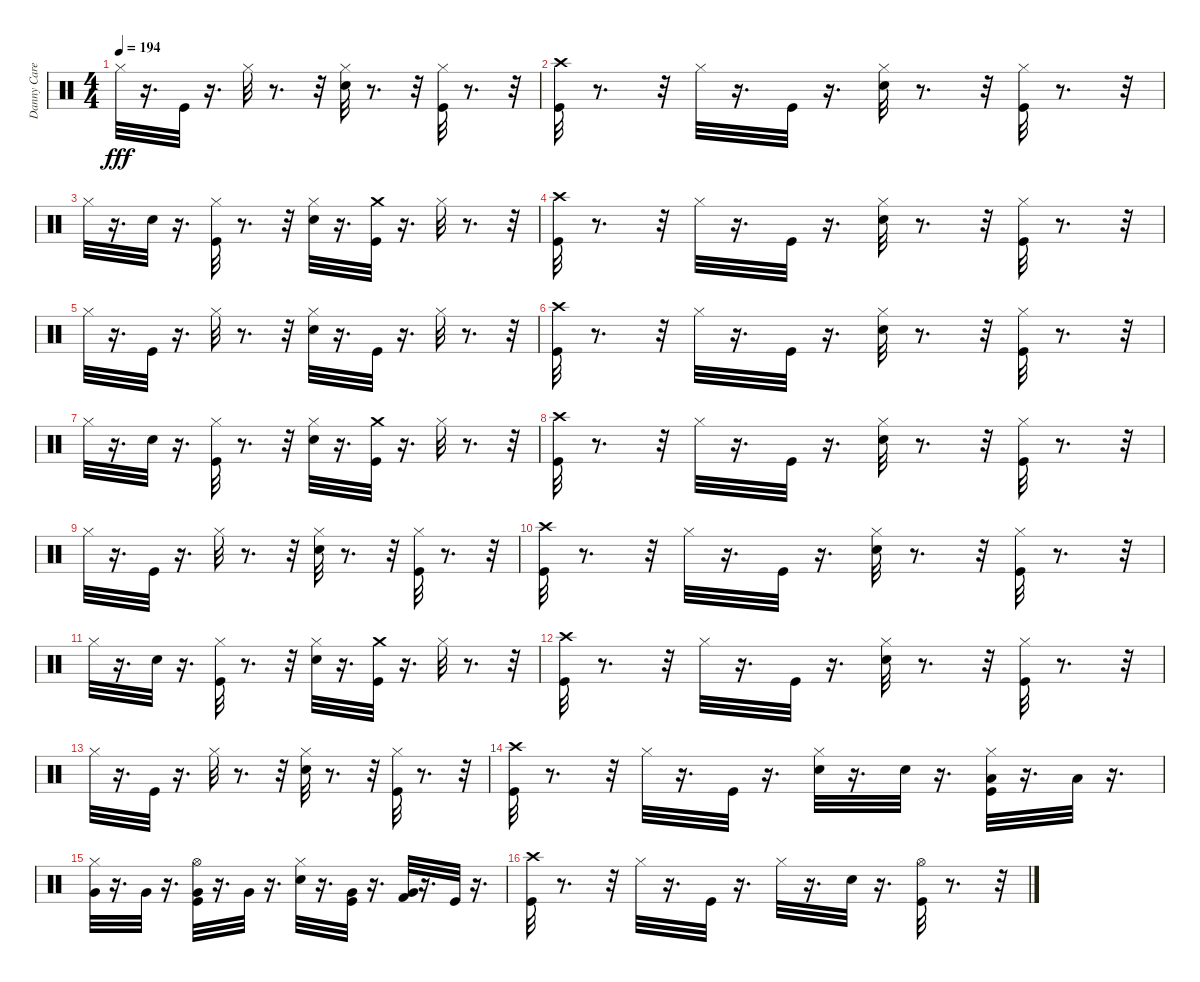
\track ("Danny Carey" "Danny Care") {instrument percussion}
\staff {score}
\articulation defaults
\ts (4 4)
\tempo 194
\clef neutral
\ks c "Hi-Hat (closed)".32{dy fff}
r.16{d} "Kick (hit)".32 r.16{d} "Hi-Hat (closed)".32 r.8{d} r.32 ("Hi-Hat (closed)" "Snare (hit) 2").32 r.8{d} r.32 ("Hi-Hat (closed)" "Kick (hit)").32 r.8{d} r.32 |
("Kick (hit)" "Crash high (hit)").32 r.8{d} r.32 "Hi-Hat (closed)".32 r.16{d} "Kick (hit)".32 r.16{d} ("Snare (hit) 2" "Hi-Hat (closed)").32 r.8{d} r.32 ("Kick (hit)" "Hi-Hat (closed)").32 r.8{d} r.32 |
"Hi-Hat (closed)".32 r.16{d} "Snare (hit) 2".32 r.16{d} ("Kick (hit)" "Hi-Hat (closed)").32 r.8{d} r.32 ("Snare (hit) 2" "Hi-Hat (closed)").32 r.16{d} ("Kick (hit)" "Crash medium (hit)").32 r.16{d} "Hi-Hat (closed)".32 r.8{d} r.32 |
("Crash high (hit)" "Kick (hit)").32 r.8{d} r.32 "Hi-Hat (closed)".32 r.16{d} "Kick (hit)".32 r.16{d} ("Hi-Hat (closed)" "Snare (hit) 2").32 r.8{d} r.32 ("Hi-Hat (closed)" "Kick (hit)").32 r.8{d} r.32 |
"Hi-Hat (closed)".32 r.16{d} "Kick (hit)".32 r.16{d} "Hi-Hat (closed)".32 r.8{d} r.32 ("Hi-Hat (closed)" "Snare (hit) 2").32 r.16{d} "Kick (hit)".32 r.16{d} "Hi-Hat (closed)".32 r.8{d} r.32 |
("Kick (hit)" "Crash high (hit)").32 r.8{d} r.32 "Hi-Hat (closed)".32 r.16{d} "Kick (hit)".32 r.16{d} ("Snare (hit) 2" "Hi-Hat (closed)").32 r.8{d} r.32 ("Kick (hit)" "Hi-Hat (closed)").32 r.8{d} r.32 |
"Hi-Hat (closed)".32 r.16{d} "Snare (hit) 2".32 r.16{d} ("Kick (hit)" "Hi-Hat (closed)").32 r.8{d} r.32 ("Snare (hit) 2" "Hi-Hat (closed)").32 r.16{d} ("Kick (hit)" "Crash medium (hit)").32 r.16{d} "Hi-Hat (closed)".32 r.8{d} r.32 |
("Crash high (hit)" "Kick (hit)").32 r.8{d} r.32 "Hi-Hat (closed)".32 r.16{d} "Kick (hit)".32 r.16{d} ("Hi-Hat (closed)" "Snare (hit) 2").32 r.8{d} r.32 ("Hi-Hat (closed)" "Kick (hit)").32 r.8{d} r.32 |
"Hi-Hat (closed)".32 r.16{d} "Kick (hit)".32 r.16{d} "Hi-Hat (closed)".32 r.8{d} r.32 ("Hi-Hat (closed)" "Snare (hit) 2").32 r.8{d} r.32 ("Hi-Hat (closed)" "Kick (hit)").32 r.8{d} r.32 |
("Kick (hit)" "Crash high (hit)").32 r.8{d} r.32 "Hi-Hat (closed)".32 r.16{d} "Kick (hit)".32 r.16{d} ("Snare (hit) 2" "Hi-Hat (closed)").32 r.8{d} r.32 ("Kick (hit)" "Hi-Hat (closed)").32 r.8{d} r.32 |
"Hi-Hat (closed)".32 r.16{d} "Snare (hit) 2".32 r.16{d} ("Kick (hit)" "Hi-Hat (closed)").32 r.8{d} r.32 ("Snare (hit) 2" "Hi-Hat (closed)").32 r.16{d} ("Kick (hit)" "Crash medium (hit)").32 r.16{d} "Hi-Hat (closed)".32 r.8{d} r.32 |
("Crash high (hit)" "Kick (hit)").32 r.8{d} r.32 "Hi-Hat (closed)".32 r.16{d} "Kick (hit)".32 r.16{d} ("Hi-Hat (closed)" "Snare (hit) 2").32 r.8{d} r.32 ("Hi-Hat (closed)" "Kick (hit)").32 r.8{d} r.32 |
"Hi-Hat (closed)".32 r.16{d} "Kick (hit)".32 r.16{d} "Hi-Hat (closed)".32 r.8{d} r.32 ("Hi-Hat (closed)" "Snare (hit) 2").32 r.8{d} r.32 ("Hi-Hat (closed)" "Kick (hit)").32 r.8{d} r.32 |
("Kick (hit)" "Crash high (hit)").32 r.8{d} r.32 "Hi-Hat (closed)".32 r.16{d} "Kick (hit)".32 r.16{d} ("Snare (hit) 2" "Hi-Hat (closed)").32 r.16{d} "Snare (hit) 2".32 r.16{d} ("Low Floor Tom (hit)" "Kick (hit)" "Hi-Hat (closed)").32 r.16{d} "Low Floor Tom (hit)".32 r.16{d} |
("Very Low Tom (hit)" "Hi-Hat (closed)").32 r.16{d} "Very Low Tom (hit)".32 r.16{d} ("Hi-Hat (open)" "Very Low Tom (hit)" "Kick (hit)").32 r.16{d} "Very Low Tom (hit)".32 r.16{d} ("Hi-Hat (closed)" "Snare (hit) 2").32 r.16{d} ("Very Low Tom (hit)" "Kick (hit)").32 r.16{d} ("Kick (hit) 2" "Very Low Tom (hit)").32 r.16{d} "Kick (hit)".32 r.16{d} |
("Crash high (hit)" "Kick (hit)").32 r.8{d} r.32 "Hi-Hat (closed)".32 r.16{d} "Kick (hit)".32 r.16{d} "Hi-Hat (closed)".32 r.16{d} "Snare (hit) 2".32 r.16{d} ("Hi-Hat (open)" "Kick (hit)").32 r.8{d} r.32
